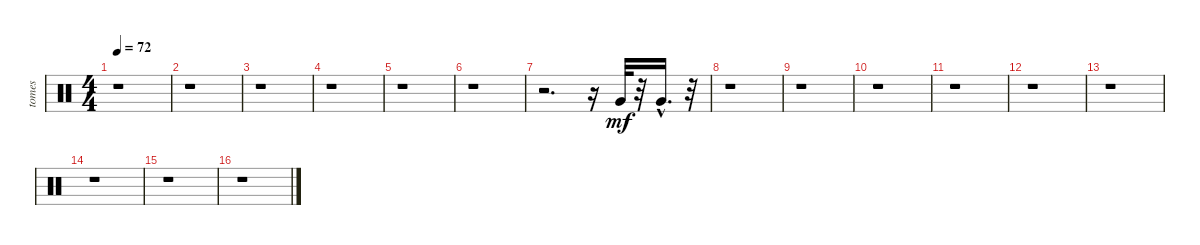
\track ("tomes" "tomes") {instrument percussion}
\staff {score}
\articulation defaults
\ts (4 4)
\tempo 72
\clef neutral
\ks c
r.1{dy mp} |
r.1 |
r.1 |
r.1 |
r.1 |
r.1 |
r.2{d} r.16 "Very Low Tom (hit)".32{dy mf} r.32 "Very Low Tom (hit)"{hac}.16{d} r.32 |
r.1 |
r.1 |
r.1 |
r.1 |
r.1 |
r.1 |
r.1 |
r.1 |
r.1
